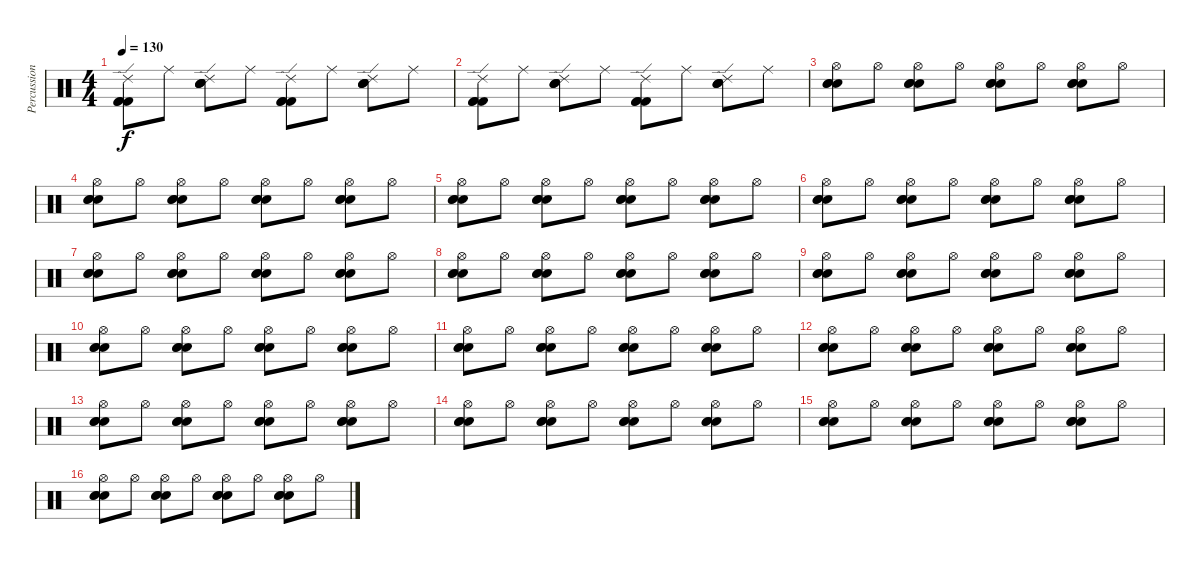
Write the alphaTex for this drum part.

\track ("Percussion" "Percussion") {instrument percussion}
\staff {score}
\articulation defaults
\ts (4 4)
\tempo 130
\clef neutral
\ks c
("Ride (edge) 2" "Kick (hit) 2" "Kick (hit) 2" "Kick (hit) 2").8{dy f} "Ride (middle)".8 ("Ride (edge) 2" "Electric Snare (hit)" "Electric Snare (hit)" "Electric Snare (hit)").8 "Ride (middle)".8 ("Ride (edge) 2" "Kick (hit) 2" "Kick (hit) 2" "Kick (hit) 2").8 "Ride (middle)".8 ("Ride (edge) 2" "Electric Snare (hit)" "Electric Snare (hit)" "Electric Snare (hit)").8 "Ride (middle)".8 |
("Ride (edge) 2" "Kick (hit) 2" "Kick (hit) 2" "Kick (hit) 2").8 "Ride (middle)".8 ("Ride (edge) 2" "Electric Snare (hit)" "Electric Snare (hit)" "Electric Snare (hit)").8 "Ride (middle)".8 ("Ride (edge) 2" "Kick (hit) 2" "Kick (hit) 2" "Kick (hit) 2").8 "Ride (middle)".8 ("Ride (edge) 2" "Electric Snare (hit)" "Electric Snare (hit)" "Electric Snare (hit)").8 "Ride (middle)".8 |
("Hi-Hat (open)" "Electric Snare (hit)" "Electric Snare (hit)" "Electric Snare (hit)").8 "Hi-Hat (open)".8 ("Hi-Hat (open)" "Electric Snare (hit)" "Electric Snare (hit)" "Electric Snare (hit)").8 "Hi-Hat (open)".8 ("Hi-Hat (open)" "Electric Snare (hit)" "Electric Snare (hit)" "Electric Snare (hit)").8 "Hi-Hat (open)".8 ("Hi-Hat (open)" "Electric Snare (hit)" "Electric Snare (hit)" "Electric Snare (hit)").8 "Hi-Hat (open)".8 |
("Hi-Hat (open)" "Electric Snare (hit)" "Electric Snare (hit)" "Electric Snare (hit)").8 "Hi-Hat (open)".8 ("Hi-Hat (open)" "Electric Snare (hit)" "Electric Snare (hit)" "Electric Snare (hit)").8 "Hi-Hat (open)".8 ("Hi-Hat (open)" "Electric Snare (hit)" "Electric Snare (hit)" "Electric Snare (hit)").8 "Hi-Hat (open)".8 ("Hi-Hat (open)" "Electric Snare (hit)" "Electric Snare (hit)" "Electric Snare (hit)").8 "Hi-Hat (open)".8 |
("Hi-Hat (open)" "Electric Snare (hit)" "Electric Snare (hit)" "Electric Snare (hit)").8 "Hi-Hat (open)".8 ("Hi-Hat (open)" "Electric Snare (hit)" "Electric Snare (hit)" "Electric Snare (hit)").8 "Hi-Hat (open)".8 ("Hi-Hat (open)" "Electric Snare (hit)" "Electric Snare (hit)" "Electric Snare (hit)").8 "Hi-Hat (open)".8 ("Hi-Hat (open)" "Electric Snare (hit)" "Electric Snare (hit)" "Electric Snare (hit)").8 "Hi-Hat (open)".8 |
("Hi-Hat (open)" "Electric Snare (hit)" "Electric Snare (hit)" "Electric Snare (hit)").8 "Hi-Hat (open)".8 ("Hi-Hat (open)" "Electric Snare (hit)" "Electric Snare (hit)" "Electric Snare (hit)").8 "Hi-Hat (open)".8 ("Hi-Hat (open)" "Electric Snare (hit)" "Electric Snare (hit)" "Electric Snare (hit)").8 "Hi-Hat (open)".8 ("Hi-Hat (open)" "Electric Snare (hit)" "Electric Snare (hit)" "Electric Snare (hit)").8 "Hi-Hat (open)".8 |
("Hi-Hat (open)" "Electric Snare (hit)" "Electric Snare (hit)" "Electric Snare (hit)").8 "Hi-Hat (open)".8 ("Hi-Hat (open)" "Electric Snare (hit)" "Electric Snare (hit)" "Electric Snare (hit)").8 "Hi-Hat (open)".8 ("Hi-Hat (open)" "Electric Snare (hit)" "Electric Snare (hit)" "Electric Snare (hit)").8 "Hi-Hat (open)".8 ("Hi-Hat (open)" "Electric Snare (hit)" "Electric Snare (hit)" "Electric Snare (hit)").8 "Hi-Hat (open)".8 |
("Hi-Hat (open)" "Electric Snare (hit)" "Electric Snare (hit)" "Electric Snare (hit)").8 "Hi-Hat (open)".8 ("Hi-Hat (open)" "Electric Snare (hit)" "Electric Snare (hit)" "Electric Snare (hit)").8 "Hi-Hat (open)".8 ("Hi-Hat (open)" "Electric Snare (hit)" "Electric Snare (hit)" "Electric Snare (hit)").8 "Hi-Hat (open)".8 ("Hi-Hat (open)" "Electric Snare (hit)" "Electric Snare (hit)" "Electric Snare (hit)").8 "Hi-Hat (open)".8 |
("Hi-Hat (open)" "Electric Snare (hit)" "Electric Snare (hit)" "Electric Snare (hit)").8 "Hi-Hat (open)".8 ("Hi-Hat (open)" "Electric Snare (hit)" "Electric Snare (hit)" "Electric Snare (hit)").8 "Hi-Hat (open)".8 ("Hi-Hat (open)" "Electric Snare (hit)" "Electric Snare (hit)" "Electric Snare (hit)").8 "Hi-Hat (open)".8 ("Hi-Hat (open)" "Electric Snare (hit)" "Electric Snare (hit)" "Electric Snare (hit)").8 "Hi-Hat (open)".8 |
("Hi-Hat (open)" "Electric Snare (hit)" "Electric Snare (hit)" "Electric Snare (hit)").8 "Hi-Hat (open)".8 ("Hi-Hat (open)" "Electric Snare (hit)" "Electric Snare (hit)" "Electric Snare (hit)").8 "Hi-Hat (open)".8 ("Hi-Hat (open)" "Electric Snare (hit)" "Electric Snare (hit)" "Electric Snare (hit)").8 "Hi-Hat (open)".8 ("Hi-Hat (open)" "Electric Snare (hit)" "Electric Snare (hit)" "Electric Snare (hit)").8 "Hi-Hat (open)".8 |
("Hi-Hat (open)" "Electric Snare (hit)" "Electric Snare (hit)" "Electric Snare (hit)").8 "Hi-Hat (open)".8 ("Hi-Hat (open)" "Electric Snare (hit)" "Electric Snare (hit)" "Electric Snare (hit)").8 "Hi-Hat (open)".8 ("Hi-Hat (open)" "Electric Snare (hit)" "Electric Snare (hit)" "Electric Snare (hit)").8 "Hi-Hat (open)".8 ("Hi-Hat (open)" "Electric Snare (hit)" "Electric Snare (hit)" "Electric Snare (hit)").8 "Hi-Hat (open)".8 |
("Hi-Hat (open)" "Electric Snare (hit)" "Electric Snare (hit)" "Electric Snare (hit)").8 "Hi-Hat (open)".8 ("Hi-Hat (open)" "Electric Snare (hit)" "Electric Snare (hit)" "Electric Snare (hit)").8 "Hi-Hat (open)".8 ("Hi-Hat (open)" "Electric Snare (hit)" "Electric Snare (hit)" "Electric Snare (hit)").8 "Hi-Hat (open)".8 ("Hi-Hat (open)" "Electric Snare (hit)" "Electric Snare (hit)" "Electric Snare (hit)").8 "Hi-Hat (open)".8 |
("Hi-Hat (open)" "Electric Snare (hit)" "Electric Snare (hit)" "Electric Snare (hit)").8 "Hi-Hat (open)".8 ("Hi-Hat (open)" "Electric Snare (hit)" "Electric Snare (hit)" "Electric Snare (hit)").8 "Hi-Hat (open)".8 ("Hi-Hat (open)" "Electric Snare (hit)" "Electric Snare (hit)" "Electric Snare (hit)").8 "Hi-Hat (open)".8 ("Hi-Hat (open)" "Electric Snare (hit)" "Electric Snare (hit)" "Electric Snare (hit)").8 "Hi-Hat (open)".8 |
("Hi-Hat (open)" "Electric Snare (hit)" "Electric Snare (hit)" "Electric Snare (hit)").8 "Hi-Hat (open)".8 ("Hi-Hat (open)" "Electric Snare (hit)" "Electric Snare (hit)" "Electric Snare (hit)").8 "Hi-Hat (open)".8 ("Hi-Hat (open)" "Electric Snare (hit)" "Electric Snare (hit)" "Electric Snare (hit)").8 "Hi-Hat (open)".8 ("Hi-Hat (open)" "Electric Snare (hit)" "Electric Snare (hit)" "Electric Snare (hit)").8 "Hi-Hat (open)".8 |
("Hi-Hat (open)" "Electric Snare (hit)" "Electric Snare (hit)" "Electric Snare (hit)").8 "Hi-Hat (open)".8 ("Hi-Hat (open)" "Electric Snare (hit)" "Electric Snare (hit)" "Electric Snare (hit)").8 "Hi-Hat (open)".8 ("Hi-Hat (open)" "Electric Snare (hit)" "Electric Snare (hit)" "Electric Snare (hit)").8 "Hi-Hat (open)".8 ("Hi-Hat (open)" "Electric Snare (hit)" "Electric Snare (hit)" "Electric Snare (hit)").8 "Hi-Hat (open)".8 |
("Hi-Hat (open)" "Electric Snare (hit)" "Electric Snare (hit)" "Electric Snare (hit)").8 "Hi-Hat (open)".8 ("Hi-Hat (open)" "Electric Snare (hit)" "Electric Snare (hit)" "Electric Snare (hit)").8 "Hi-Hat (open)".8 ("Hi-Hat (open)" "Electric Snare (hit)" "Electric Snare (hit)" "Electric Snare (hit)").8 "Hi-Hat (open)".8 ("Hi-Hat (open)" "Electric Snare (hit)" "Electric Snare (hit)" "Electric Snare (hit)").8 "Hi-Hat (open)".8
